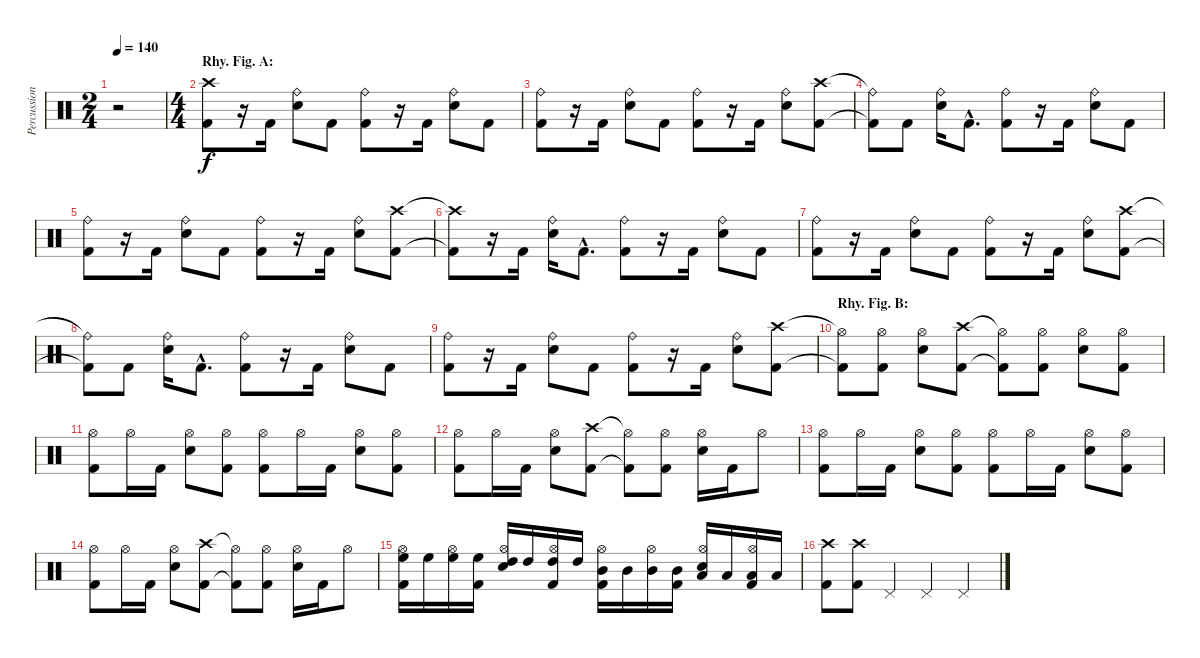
\track ("Percussion" "Percussion") {instrument percussion}
\staff {score}
\articulation defaults
\ts (2 4)
\tempo 140
\clef neutral
\ks c
r.2{dy f} |
\ts (4 4)
\section ("" "Rhy. Fig. A:")
("Crash high (hit)" "Kick (hit) 2").8 r.16 "Kick (hit) 2".16 ("Ride (bell)" "Snare (hit) 2").8 "Kick (hit) 2".8 ("Ride (bell)" "Kick (hit) 2").8 r.16 "Kick (hit) 2".16 ("Ride (bell)" "Snare (hit) 2").8 "Kick (hit) 2".8 |
("Ride (bell)" "Kick (hit) 2").8 r.16 "Kick (hit) 2".16 ("Ride (bell)" "Snare (hit) 2").8 "Kick (hit) 2".8 ("Ride (bell)" "Kick (hit) 2").8 r.16 "Kick (hit) 2".16 ("Ride (bell)" "Snare (hit) 2").8 ("Crash high (hit)" "Kick (hit) 2").8 |
("Ride (bell)"{t} "Kick (hit) 2"{t}).8 "Kick (hit) 2".8 ("Ride (bell)" "Snare (hit) 2").16 "Kick (hit) 2"{hac}.8{d} ("Ride (bell)" "Kick (hit) 2").8 r.16 "Kick (hit) 2".16 ("Ride (bell)" "Snare (hit) 2").8 "Kick (hit) 2".8 |
("Ride (bell)" "Kick (hit) 2").8 r.16 "Kick (hit) 2".16 ("Ride (bell)" "Snare (hit) 2").8 "Kick (hit) 2".8 ("Ride (bell)" "Kick (hit) 2").8 r.16 "Kick (hit) 2".16 ("Ride (bell)" "Snare (hit) 2").8 ("Crash high (hit)" "Kick (hit) 2").8 |
("Crash high (hit)"{t} "Kick (hit) 2"{t}).8 r.16 "Kick (hit) 2".16 ("Ride (bell)" "Snare (hit) 2").16 "Kick (hit) 2"{hac}.8{d} ("Ride (bell)" "Kick (hit) 2").8 r.16 "Kick (hit) 2".16 ("Ride (bell)" "Snare (hit) 2").8 "Kick (hit) 2".8 |
("Ride (bell)" "Kick (hit) 2").8 r.16 "Kick (hit) 2".16 ("Ride (bell)" "Snare (hit) 2").8 "Kick (hit) 2".8 ("Ride (bell)" "Kick (hit) 2").8 r.16 "Kick (hit) 2".16 ("Ride (bell)" "Snare (hit) 2").8 ("Crash high (hit)" "Kick (hit) 2").8 |
("Ride (bell)"{t} "Kick (hit) 2"{t}).8 "Kick (hit) 2".8 ("Ride (bell)" "Snare (hit) 2").16 "Kick (hit) 2"{hac}.8{d} ("Ride (bell)" "Kick (hit) 2").8 r.16 "Kick (hit) 2".16 ("Ride (bell)" "Snare (hit) 2").8 "Kick (hit) 2".8 |
("Ride (bell)" "Kick (hit) 2").8 r.16 "Kick (hit) 2".16 ("Ride (bell)" "Snare (hit) 2").8 "Kick (hit) 2".8 ("Ride (bell)" "Kick (hit) 2").8 r.16 "Kick (hit) 2".16 ("Ride (bell)" "Snare (hit) 2").8 ("Crash high (hit)" "Kick (hit) 2").8 |
\section ("" "Rhy. Fig. B:")
("Hi-Hat (open)"{t} "Kick (hit) 2"{t}).8 ("Hi-Hat (open)" "Kick (hit) 2").8 ("Hi-Hat (open)" "Snare (hit) 2").8 ("Crash high (hit)" "Kick (hit) 2").8 ("Hi-Hat (open)"{t} "Kick (hit) 2"{t}).8 ("Hi-Hat (open)" "Kick (hit) 2").8 ("Hi-Hat (open)" "Snare (hit) 2").8 ("Hi-Hat (open)" "Kick (hit) 2").8 |
("Hi-Hat (open)" "Kick (hit) 2").8 "Hi-Hat (open)".16 "Kick (hit) 2".16 ("Hi-Hat (open)" "Snare (hit) 2").8 ("Hi-Hat (open)" "Kick (hit) 2").8 ("Hi-Hat (open)" "Kick (hit) 2").8 "Hi-Hat (open)".16 "Kick (hit) 2".16 ("Hi-Hat (open)" "Snare (hit) 2").8 ("Hi-Hat (open)" "Kick (hit) 2").8 |
("Hi-Hat (open)" "Kick (hit) 2").8 "Hi-Hat (open)".16 "Kick (hit) 2".16 ("Hi-Hat (open)" "Snare (hit) 2").8 ("Crash high (hit)" "Kick (hit) 2").8 ("Hi-Hat (open)"{t} "Kick (hit) 2"{t}).8 ("Hi-Hat (open)" "Kick (hit) 2").8 ("Hi-Hat (open)" "Snare (hit) 2").16 "Kick (hit) 2".16 "Hi-Hat (open)".8 |
("Hi-Hat (open)" "Kick (hit) 2").8 "Hi-Hat (open)".16 "Kick (hit) 2".16 ("Hi-Hat (open)" "Snare (hit) 2").8 ("Hi-Hat (open)" "Kick (hit) 2").8 ("Hi-Hat (open)" "Kick (hit) 2").8 "Hi-Hat (open)".16 "Kick (hit) 2".16 ("Hi-Hat (open)" "Snare (hit) 2").8 ("Hi-Hat (open)" "Kick (hit) 2").8 |
("Hi-Hat (open)" "Kick (hit) 2").8 "Hi-Hat (open)".16 "Kick (hit) 2".16 ("Hi-Hat (open)" "Snare (hit) 2").8 ("Crash high (hit)" "Kick (hit) 2").8 ("Hi-Hat (open)"{t} "Kick (hit) 2"{t}).8 ("Hi-Hat (open)" "Kick (hit) 2").8 ("Hi-Hat (open)" "Snare (hit) 2").16 "Kick (hit) 2".16 "Hi-Hat (open)".8 |
("Hi-Hat (open)" "High Floor Tom (hit)" "Kick (hit) 2").16 "High Floor Tom (hit)".16 ("Hi-Hat (open)" "High Floor Tom (hit)").16 ("High Floor Tom (hit)" "Kick (hit) 2").16 ("Hi-Hat (open)" "High Tom (hit)" "Snare (hit) 2").16 "High Tom (hit)".16 ("Hi-Hat (open)" "High Tom (hit)" "Kick (hit) 2").16 "High Tom (hit)".16 ("Hi-Hat (open)" "Mid Tom (hit)" "Kick (hit) 2").16 "Mid Tom (hit)".16 ("Hi-Hat (open)" "Mid Tom (hit)").16 ("Mid Tom (hit)" "Kick (hit) 2").16 ("Hi-Hat (open)" "Low Tom (hit)" "Snare (hit) 2").16 "Low Tom (hit)".16 ("Hi-Hat (open)" "Low Tom (hit)" "Kick (hit) 2").16 "Low Tom (hit)".16 |
("Crash high (hit)" "Kick (hit) 2").8 ("Crash high (hit)" "Kick (hit) 2").8 "Pedal Hi-Hat (hit)".4 "Pedal Hi-Hat (hit)".4 "Pedal Hi-Hat (hit)".4
